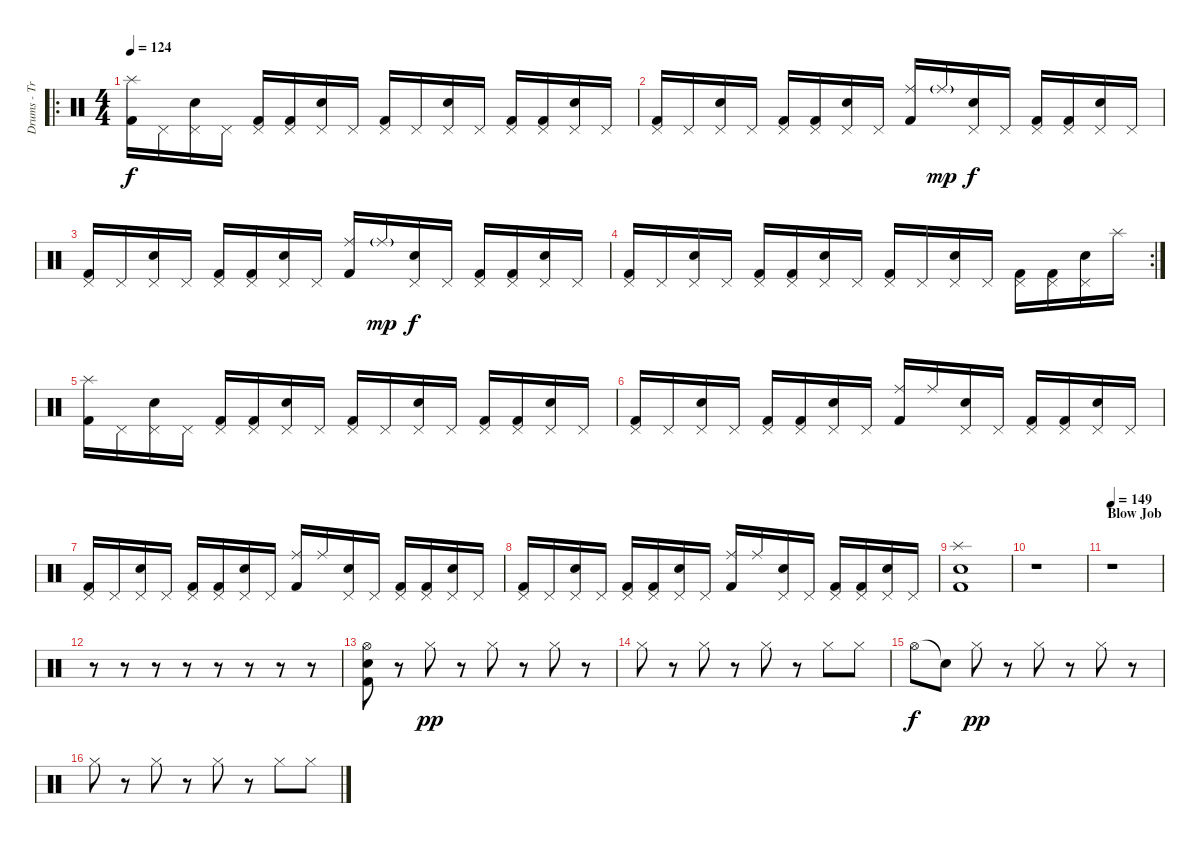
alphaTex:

\track ("Drums - Travis Barker" "Drums - Tr") {instrument percussion}
\staff {score}
\articulation defaults
\ro
\ts (4 4)
\tempo 124
\clef neutral
\ks c
("Splash (hit)" "Kick (hit) 2").16{dy f} "Pedal Hi-Hat (hit)".16 ("Pedal Hi-Hat (hit)" "Electric Snare (hit)").16 "Pedal Hi-Hat (hit)".16 ("Pedal Hi-Hat (hit)" "Kick (hit) 2").16 ("Pedal Hi-Hat (hit)" "Kick (hit) 2").16 ("Pedal Hi-Hat (hit)" "Electric Snare (hit)").16 "Pedal Hi-Hat (hit)".16 ("Pedal Hi-Hat (hit)" "Kick (hit) 2").16 "Pedal Hi-Hat (hit)".16 ("Pedal Hi-Hat (hit)" "Electric Snare (hit)").16 "Pedal Hi-Hat (hit)".16 ("Pedal Hi-Hat (hit)" "Kick (hit) 2").16 ("Pedal Hi-Hat (hit)" "Kick (hit) 2").16 ("Pedal Hi-Hat (hit)" "Electric Snare (hit)").16 "Pedal Hi-Hat (hit)".16 |
("Pedal Hi-Hat (hit)" "Kick (hit) 2").16 "Pedal Hi-Hat (hit)".16 ("Pedal Hi-Hat (hit)" "Electric Snare (hit)").16 "Pedal Hi-Hat (hit)".16 ("Pedal Hi-Hat (hit)" "Kick (hit) 2").16 ("Pedal Hi-Hat (hit)" "Kick (hit) 2").16 ("Pedal Hi-Hat (hit)" "Electric Snare (hit)").16 "Pedal Hi-Hat (hit)".16 ("Ride (middle)" "Kick (hit) 2").16 "Ride (middle)"{g}.16{dy mp} ("Pedal Hi-Hat (hit)" "Electric Snare (hit)").16{dy f} "Pedal Hi-Hat (hit)".16 ("Pedal Hi-Hat (hit)" "Kick (hit) 2").16 ("Pedal Hi-Hat (hit)" "Kick (hit) 2").16 ("Pedal Hi-Hat (hit)" "Electric Snare (hit)").16 "Pedal Hi-Hat (hit)".16 |
("Pedal Hi-Hat (hit)" "Kick (hit) 2").16 "Pedal Hi-Hat (hit)".16 ("Pedal Hi-Hat (hit)" "Electric Snare (hit)").16 "Pedal Hi-Hat (hit)".16 ("Pedal Hi-Hat (hit)" "Kick (hit) 2").16 ("Pedal Hi-Hat (hit)" "Kick (hit) 2").16 ("Pedal Hi-Hat (hit)" "Electric Snare (hit)").16 "Pedal Hi-Hat (hit)".16 ("Ride (middle)" "Kick (hit) 2").16 "Ride (middle)"{g}.16{dy mp} ("Pedal Hi-Hat (hit)" "Electric Snare (hit)").16{dy f} "Pedal Hi-Hat (hit)".16 ("Pedal Hi-Hat (hit)" "Kick (hit) 2").16 ("Pedal Hi-Hat (hit)" "Kick (hit) 2").16 ("Pedal Hi-Hat (hit)" "Electric Snare (hit)").16 "Pedal Hi-Hat (hit)".16 |
\rc 2
("Pedal Hi-Hat (hit)" "Kick (hit) 2").16 "Pedal Hi-Hat (hit)".16 ("Pedal Hi-Hat (hit)" "Electric Snare (hit)").16 "Pedal Hi-Hat (hit)".16 ("Pedal Hi-Hat (hit)" "Kick (hit) 2").16 ("Pedal Hi-Hat (hit)" "Kick (hit) 2").16 ("Pedal Hi-Hat (hit)" "Electric Snare (hit)").16 "Pedal Hi-Hat (hit)".16 ("Pedal Hi-Hat (hit)" "Kick (hit) 2").16 "Pedal Hi-Hat (hit)".16 ("Pedal Hi-Hat (hit)" "Electric Snare (hit)").16 "Pedal Hi-Hat (hit)".16 ("Pedal Hi-Hat (hit)" "Kick (hit) 2").16 ("Pedal Hi-Hat (hit)" "Kick (hit) 2").16 ("Pedal Hi-Hat (hit)" "Electric Snare (hit)").16 "Splash (hit)".16 |
("Splash (hit)" "Kick (hit) 2").16 "Pedal Hi-Hat (hit)".16 ("Pedal Hi-Hat (hit)" "Electric Snare (hit)").16 "Pedal Hi-Hat (hit)".16 ("Pedal Hi-Hat (hit)" "Kick (hit) 2").16 ("Pedal Hi-Hat (hit)" "Kick (hit) 2").16 ("Pedal Hi-Hat (hit)" "Electric Snare (hit)").16 "Pedal Hi-Hat (hit)".16 ("Pedal Hi-Hat (hit)" "Kick (hit) 2").16 "Pedal Hi-Hat (hit)".16 ("Pedal Hi-Hat (hit)" "Electric Snare (hit)").16 "Pedal Hi-Hat (hit)".16 ("Pedal Hi-Hat (hit)" "Kick (hit) 2").16 ("Pedal Hi-Hat (hit)" "Kick (hit) 2").16 ("Pedal Hi-Hat (hit)" "Electric Snare (hit)").16 "Pedal Hi-Hat (hit)".16 |
("Pedal Hi-Hat (hit)" "Kick (hit) 2").16 "Pedal Hi-Hat (hit)".16 ("Pedal Hi-Hat (hit)" "Electric Snare (hit)").16 "Pedal Hi-Hat (hit)".16 ("Pedal Hi-Hat (hit)" "Kick (hit) 2").16 ("Pedal Hi-Hat (hit)" "Kick (hit) 2").16 ("Pedal Hi-Hat (hit)" "Electric Snare (hit)").16 "Pedal Hi-Hat (hit)".16 ("Ride (middle)" "Kick (hit) 2").16 "Ride (middle)".16 ("Pedal Hi-Hat (hit)" "Electric Snare (hit)").16 "Pedal Hi-Hat (hit)".16 ("Pedal Hi-Hat (hit)" "Kick (hit) 2").16 ("Pedal Hi-Hat (hit)" "Kick (hit) 2").16 ("Pedal Hi-Hat (hit)" "Electric Snare (hit)").16 "Pedal Hi-Hat (hit)".16 |
("Pedal Hi-Hat (hit)" "Kick (hit) 2").16 "Pedal Hi-Hat (hit)".16 ("Pedal Hi-Hat (hit)" "Electric Snare (hit)").16 "Pedal Hi-Hat (hit)".16 ("Pedal Hi-Hat (hit)" "Kick (hit) 2").16 ("Pedal Hi-Hat (hit)" "Kick (hit) 2").16 ("Pedal Hi-Hat (hit)" "Electric Snare (hit)").16 "Pedal Hi-Hat (hit)".16 ("Ride (middle)" "Kick (hit) 2").16 "Ride (middle)".16 ("Pedal Hi-Hat (hit)" "Electric Snare (hit)").16 "Pedal Hi-Hat (hit)".16 ("Pedal Hi-Hat (hit)" "Kick (hit) 2").16 ("Pedal Hi-Hat (hit)" "Kick (hit) 2").16 ("Pedal Hi-Hat (hit)" "Electric Snare (hit)").16 "Pedal Hi-Hat (hit)".16 |
("Pedal Hi-Hat (hit)" "Kick (hit) 2").16 "Pedal Hi-Hat (hit)".16 ("Pedal Hi-Hat (hit)" "Electric Snare (hit)").16 "Pedal Hi-Hat (hit)".16 ("Pedal Hi-Hat (hit)" "Kick (hit) 2").16 ("Pedal Hi-Hat (hit)" "Kick (hit) 2").16 ("Pedal Hi-Hat (hit)" "Electric Snare (hit)").16 "Pedal Hi-Hat (hit)".16 ("Ride (middle)" "Kick (hit) 2").16 "Ride (middle)".16 ("Pedal Hi-Hat (hit)" "Electric Snare (hit)").16 "Pedal Hi-Hat (hit)".16 ("Pedal Hi-Hat (hit)" "Kick (hit) 2").16 ("Pedal Hi-Hat (hit)" "Kick (hit) 2").16 ("Pedal Hi-Hat (hit)" "Electric Snare (hit)").16 "Pedal Hi-Hat (hit)".16 |
("Splash (hit)" "Electric Snare (hit)" "Kick (hit) 2").1 |
r.1 |
\section ("" "Blow Job")
\tempo 149
r.1 |
r.8 r.8 r.8 r.8 r.8 r.8 r.8 r.8 |
("Hi-Hat (open)" "Electric Snare (hit)" "Kick (hit) 2").8 r.8 "Hi-Hat (closed)".8{dy pp} r.8 "Hi-Hat (closed)".8 r.8 "Hi-Hat (closed)".8 r.8 |
"Hi-Hat (closed)".8 r.8 "Hi-Hat (closed)".8 r.8 "Hi-Hat (closed)".8 r.8 "Hi-Hat (closed)".8 "Hi-Hat (closed)".8 |
"Hi-Hat (open)".8{dy f} "Snare (hit)"{t}.8 "Hi-Hat (closed)".8{dy pp} r.8 "Hi-Hat (closed)".8 r.8 "Hi-Hat (closed)".8 r.8 |
"Hi-Hat (closed)".8 r.8 "Hi-Hat (closed)".8 r.8 "Hi-Hat (closed)".8 r.8 "Hi-Hat (closed)".8 "Hi-Hat (closed)".8
